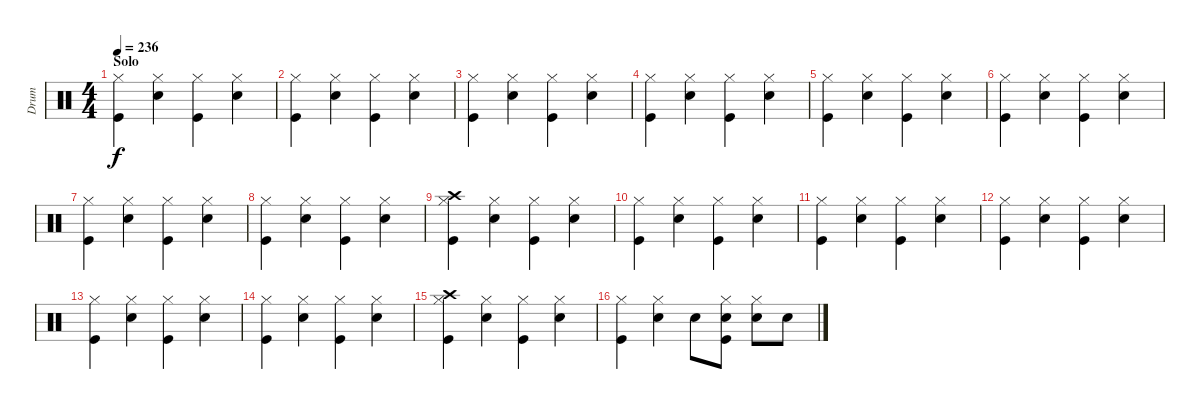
\track ("Drum" "Drum") {instrument percussion}
\staff {score}
\articulation defaults
\ts (4 4)
\section ("" "Solo")
\tempo 236
\clef neutral
\ks c
("Hi-Hat (closed)" "Kick (hit)").4{dy f} ("Hi-Hat (closed)" "Snare (hit) 2").4 ("Hi-Hat (closed)" "Kick (hit)").4 ("Hi-Hat (closed)" "Snare (hit) 2").4 |
("Hi-Hat (closed)" "Kick (hit)").4 ("Hi-Hat (closed)" "Snare (hit) 2").4 ("Hi-Hat (closed)" "Kick (hit)").4 ("Hi-Hat (closed)" "Snare (hit) 2").4 |
("Hi-Hat (closed)" "Kick (hit)").4 ("Hi-Hat (closed)" "Snare (hit) 2").4 ("Hi-Hat (closed)" "Kick (hit)").4 ("Hi-Hat (closed)" "Snare (hit) 2").4 |
("Hi-Hat (closed)" "Kick (hit)").4 ("Hi-Hat (closed)" "Snare (hit) 2").4 ("Hi-Hat (closed)" "Kick (hit)").4 ("Hi-Hat (closed)" "Snare (hit) 2").4 |
("Hi-Hat (closed)" "Kick (hit)").4 ("Hi-Hat (closed)" "Snare (hit) 2").4 ("Hi-Hat (closed)" "Kick (hit)").4 ("Hi-Hat (closed)" "Snare (hit) 2").4 |
("Hi-Hat (closed)" "Kick (hit)").4 ("Hi-Hat (closed)" "Snare (hit) 2").4 ("Hi-Hat (closed)" "Kick (hit)").4 ("Hi-Hat (closed)" "Snare (hit) 2").4 |
("Hi-Hat (closed)" "Kick (hit)").4 ("Hi-Hat (closed)" "Snare (hit) 2").4 ("Hi-Hat (closed)" "Kick (hit)").4 ("Hi-Hat (closed)" "Snare (hit) 2").4 |
("Hi-Hat (closed)" "Kick (hit)").4 ("Hi-Hat (closed)" "Snare (hit) 2").4 ("Hi-Hat (closed)" "Kick (hit)").4 ("Hi-Hat (closed)" "Snare (hit) 2").4 |
("Crash high (hit)" "Hi-Hat (closed)" "Kick (hit)").4 ("Hi-Hat (closed)" "Snare (hit) 2").4 ("Hi-Hat (closed)" "Kick (hit)").4 ("Hi-Hat (closed)" "Snare (hit) 2").4 |
("Hi-Hat (closed)" "Kick (hit)").4 ("Hi-Hat (closed)" "Snare (hit) 2").4 ("Hi-Hat (closed)" "Kick (hit)").4 ("Hi-Hat (closed)" "Snare (hit) 2").4 |
("Hi-Hat (closed)" "Kick (hit)").4 ("Hi-Hat (closed)" "Snare (hit) 2").4 ("Hi-Hat (closed)" "Kick (hit)").4 ("Hi-Hat (closed)" "Snare (hit) 2").4 |
("Hi-Hat (closed)" "Kick (hit)").4 ("Hi-Hat (closed)" "Snare (hit) 2").4 ("Hi-Hat (closed)" "Kick (hit)").4 ("Hi-Hat (closed)" "Snare (hit) 2").4 |
("Hi-Hat (closed)" "Kick (hit)").4 ("Hi-Hat (closed)" "Snare (hit) 2").4 ("Hi-Hat (closed)" "Kick (hit)").4 ("Hi-Hat (closed)" "Snare (hit) 2").4 |
("Hi-Hat (closed)" "Kick (hit)").4 ("Hi-Hat (closed)" "Snare (hit) 2").4 ("Hi-Hat (closed)" "Kick (hit)").4 ("Hi-Hat (closed)" "Snare (hit) 2").4 |
("Crash high (hit)" "Hi-Hat (closed)" "Kick (hit)").4 ("Hi-Hat (closed)" "Snare (hit) 2").4 ("Hi-Hat (closed)" "Kick (hit)").4 ("Hi-Hat (closed)" "Snare (hit) 2").4 |
("Hi-Hat (closed)" "Kick (hit)").4 ("Hi-Hat (closed)" "Snare (hit) 2").4 "Snare (hit) 2".8 ("Hi-Hat (closed)" "Snare (hit) 2" "Kick (hit)").8 ("Hi-Hat (closed)" "Snare (hit) 2").8 "Snare (hit) 2".8
